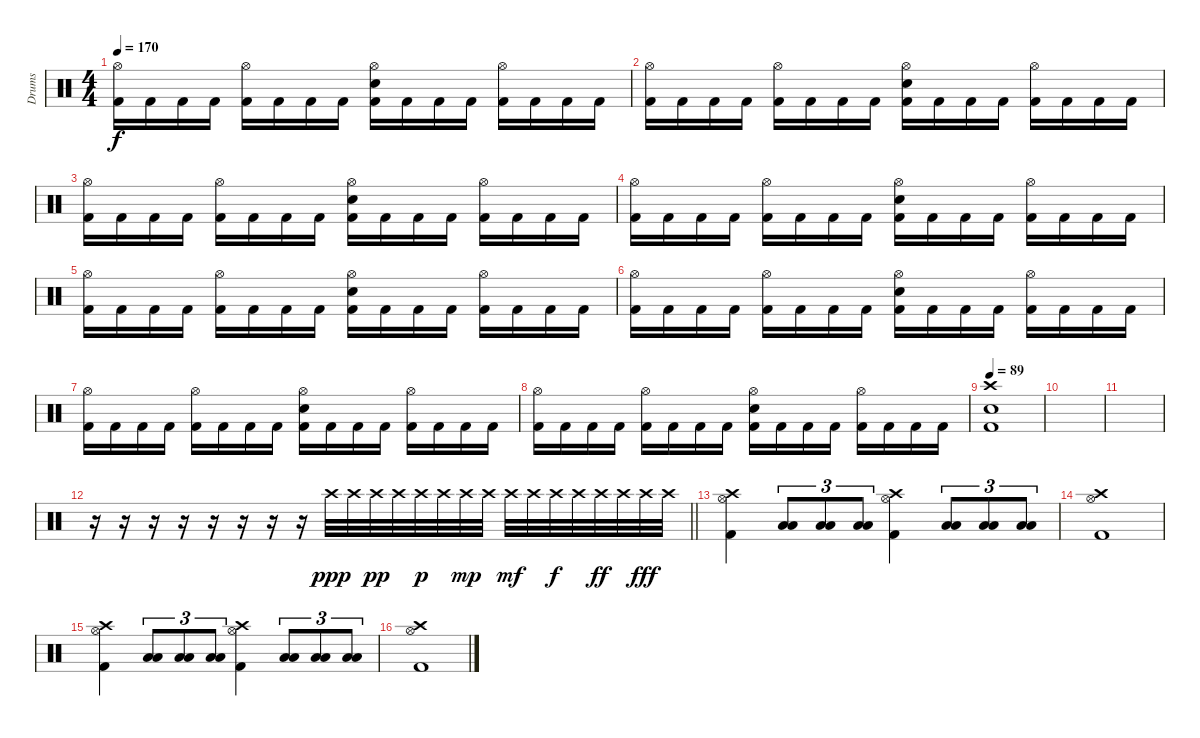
\track ("Drums" "Drums") {instrument percussion}
\staff {score}
\articulation defaults
\ts (4 4)
\tempo 170
\clef neutral
\ks c
("Hi-Hat (open)" "Kick (hit) 2").16{dy f} "Kick (hit) 2".16 "Kick (hit) 2".16 "Kick (hit) 2".16 ("Hi-Hat (open)" "Kick (hit) 2").16 "Kick (hit) 2".16 "Kick (hit) 2".16 "Kick (hit) 2".16 ("Hi-Hat (open)" "Snare (hit) 2" "Kick (hit) 2").16 "Kick (hit) 2".16 "Kick (hit) 2".16 "Kick (hit) 2".16 ("Hi-Hat (open)" "Kick (hit) 2").16 "Kick (hit) 2".16 "Kick (hit) 2".16 "Kick (hit) 2".16 |
("Hi-Hat (open)" "Kick (hit) 2").16 "Kick (hit) 2".16 "Kick (hit) 2".16 "Kick (hit) 2".16 ("Hi-Hat (open)" "Kick (hit) 2").16 "Kick (hit) 2".16 "Kick (hit) 2".16 "Kick (hit) 2".16 ("Hi-Hat (open)" "Snare (hit) 2" "Kick (hit) 2").16 "Kick (hit) 2".16 "Kick (hit) 2".16 "Kick (hit) 2".16 ("Hi-Hat (open)" "Kick (hit) 2").16 "Kick (hit) 2".16 "Kick (hit) 2".16 "Kick (hit) 2".16 |
("Hi-Hat (open)" "Kick (hit) 2").16 "Kick (hit) 2".16 "Kick (hit) 2".16 "Kick (hit) 2".16 ("Hi-Hat (open)" "Kick (hit) 2").16 "Kick (hit) 2".16 "Kick (hit) 2".16 "Kick (hit) 2".16 ("Hi-Hat (open)" "Snare (hit) 2" "Kick (hit) 2").16 "Kick (hit) 2".16 "Kick (hit) 2".16 "Kick (hit) 2".16 ("Hi-Hat (open)" "Kick (hit) 2").16 "Kick (hit) 2".16 "Kick (hit) 2".16 "Kick (hit) 2".16 |
("Hi-Hat (open)" "Kick (hit) 2").16 "Kick (hit) 2".16 "Kick (hit) 2".16 "Kick (hit) 2".16 ("Hi-Hat (open)" "Kick (hit) 2").16 "Kick (hit) 2".16 "Kick (hit) 2".16 "Kick (hit) 2".16 ("Hi-Hat (open)" "Snare (hit) 2" "Kick (hit) 2").16 "Kick (hit) 2".16 "Kick (hit) 2".16 "Kick (hit) 2".16 ("Hi-Hat (open)" "Kick (hit) 2").16 "Kick (hit) 2".16 "Kick (hit) 2".16 "Kick (hit) 2".16 |
("Hi-Hat (open)" "Kick (hit) 2").16 "Kick (hit) 2".16 "Kick (hit) 2".16 "Kick (hit) 2".16 ("Hi-Hat (open)" "Kick (hit) 2").16 "Kick (hit) 2".16 "Kick (hit) 2".16 "Kick (hit) 2".16 ("Hi-Hat (open)" "Snare (hit) 2" "Kick (hit) 2").16 "Kick (hit) 2".16 "Kick (hit) 2".16 "Kick (hit) 2".16 ("Hi-Hat (open)" "Kick (hit) 2").16 "Kick (hit) 2".16 "Kick (hit) 2".16 "Kick (hit) 2".16 |
("Hi-Hat (open)" "Kick (hit) 2").16 "Kick (hit) 2".16 "Kick (hit) 2".16 "Kick (hit) 2".16 ("Hi-Hat (open)" "Kick (hit) 2").16 "Kick (hit) 2".16 "Kick (hit) 2".16 "Kick (hit) 2".16 ("Hi-Hat (open)" "Snare (hit) 2" "Kick (hit) 2").16 "Kick (hit) 2".16 "Kick (hit) 2".16 "Kick (hit) 2".16 ("Hi-Hat (open)" "Kick (hit) 2").16 "Kick (hit) 2".16 "Kick (hit) 2".16 "Kick (hit) 2".16 |
("Hi-Hat (open)" "Kick (hit) 2").16 "Kick (hit) 2".16 "Kick (hit) 2".16 "Kick (hit) 2".16 ("Hi-Hat (open)" "Kick (hit) 2").16 "Kick (hit) 2".16 "Kick (hit) 2".16 "Kick (hit) 2".16 ("Hi-Hat (open)" "Snare (hit) 2" "Kick (hit) 2").16 "Kick (hit) 2".16 "Kick (hit) 2".16 "Kick (hit) 2".16 ("Hi-Hat (open)" "Kick (hit) 2").16 "Kick (hit) 2".16 "Kick (hit) 2".16 "Kick (hit) 2".16 |
("Hi-Hat (open)" "Kick (hit) 2").16 "Kick (hit) 2".16 "Kick (hit) 2".16 "Kick (hit) 2".16 ("Hi-Hat (open)" "Kick (hit) 2").16 "Kick (hit) 2".16 "Kick (hit) 2".16 "Kick (hit) 2".16 ("Hi-Hat (open)" "Snare (hit) 2" "Kick (hit) 2").16 "Kick (hit) 2".16 "Kick (hit) 2".16 "Kick (hit) 2".16 ("Hi-Hat (open)" "Kick (hit) 2").16 "Kick (hit) 2".16 "Kick (hit) 2".16 "Kick (hit) 2".16 |
\tempo 89
("Crash high (hit)" "Snare (hit) 2" "Kick (hit) 2").1 |
|
|
\barLineRight lightlight
r.16 r.16 r.16 r.16 r.16 r.16 r.16 r.16 "Crash high (hit)".32{dy ppp} "Crash high (hit)".32 "Crash high (hit)".32{dy pp} "Crash high (hit)".32 "Crash high (hit)".32{dy p} "Crash high (hit)".32 "Crash high (hit)".32{dy mp} "Crash high (hit)".32 "Crash high (hit)".32{dy mf} "Crash high (hit)".32 "Crash high (hit)".32{dy f} "Crash high (hit)".32 "Crash high (hit)".32{dy ff} "Crash high (hit)".32 "Crash high (hit)".32{dy fff} "Crash high (hit)".32 |
("Crash high (hit)" "Hi-Hat (open)" "Kick (hit) 2").4 ("Low Tom (hit)" "Low Floor Tom (hit)").8{tu (3 2)} ("Low Tom (hit)" "Low Floor Tom (hit)").8{tu (3 2)} ("Low Tom (hit)" "Low Floor Tom (hit)").8{tu (3 2)} ("Crash high (hit)" "Hi-Hat (open)" "Kick (hit) 2").4 ("Low Tom (hit)" "Low Floor Tom (hit)").8{tu (3 2)} ("Low Tom (hit)" "Low Floor Tom (hit)").8{tu (3 2)} ("Low Tom (hit)" "Low Floor Tom (hit)").8{tu (3 2)} |
("Crash high (hit)" "Hi-Hat (open)" "Kick (hit) 2").1 |
("Crash high (hit)" "Hi-Hat (open)" "Kick (hit) 2").4 ("Low Tom (hit)" "Low Floor Tom (hit)").8{tu (3 2)} ("Low Tom (hit)" "Low Floor Tom (hit)").8{tu (3 2)} ("Low Tom (hit)" "Low Floor Tom (hit)").8{tu (3 2)} ("Crash high (hit)" "Hi-Hat (open)" "Kick (hit) 2").4 ("Low Tom (hit)" "Low Floor Tom (hit)").8{tu (3 2)} ("Low Tom (hit)" "Low Floor Tom (hit)").8{tu (3 2)} ("Low Tom (hit)" "Low Floor Tom (hit)").8{tu (3 2)} |
("Crash high (hit)" "Hi-Hat (open)" "Kick (hit) 2").1
